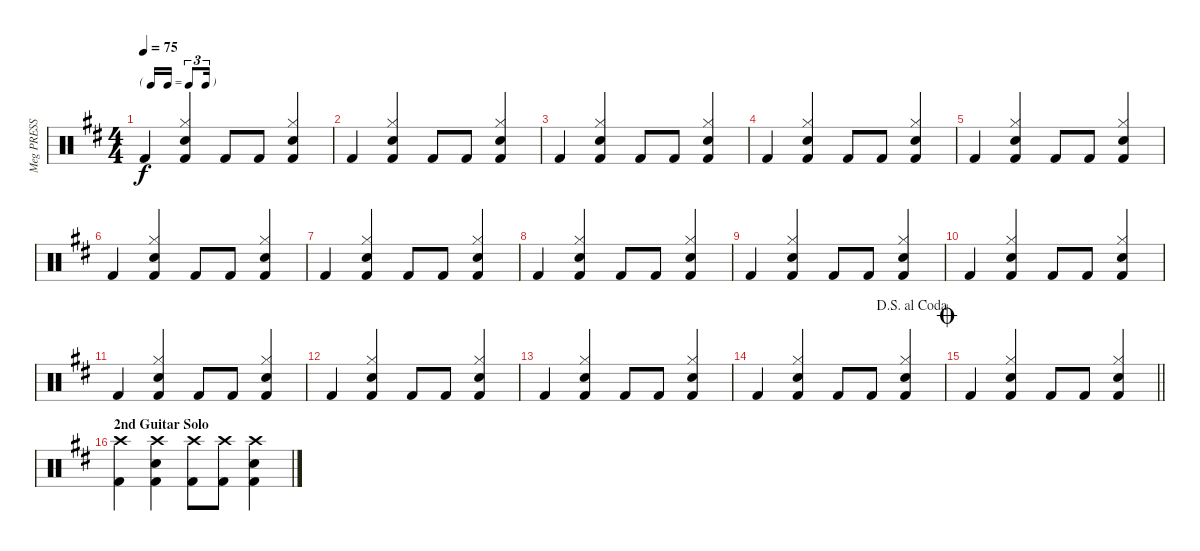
\track ("Meg PRESS F5!!" "Meg PRESS ") {instrument percussion}
\staff {score}
\articulation defaults
\ts (4 4)
\tf triplet16th
\tempo 75
\clef neutral
\ks d "Kick (hit) 2".4{dy f}
("Kick (hit) 2" "Hi-Hat (closed)" "Snare (hit) 2").4 "Kick (hit) 2".8 "Kick (hit) 2".8 ("Kick (hit) 2" "Hi-Hat (closed)" "Snare (hit) 2").4 |
"Kick (hit) 2".4 ("Kick (hit) 2" "Hi-Hat (closed)" "Snare (hit) 2").4 "Kick (hit) 2".8 "Kick (hit) 2".8 ("Kick (hit) 2" "Hi-Hat (closed)" "Snare (hit) 2").4 |
"Kick (hit) 2".4 ("Kick (hit) 2" "Hi-Hat (closed)" "Snare (hit) 2").4 "Kick (hit) 2".8 "Kick (hit) 2".8 ("Kick (hit) 2" "Hi-Hat (closed)" "Snare (hit) 2").4 |
"Kick (hit) 2".4 ("Kick (hit) 2" "Hi-Hat (closed)" "Snare (hit) 2").4 "Kick (hit) 2".8 "Kick (hit) 2".8 ("Kick (hit) 2" "Hi-Hat (closed)" "Snare (hit) 2").4 |
"Kick (hit) 2".4 ("Kick (hit) 2" "Hi-Hat (closed)" "Snare (hit) 2").4 "Kick (hit) 2".8 "Kick (hit) 2".8 ("Kick (hit) 2" "Hi-Hat (closed)" "Snare (hit) 2").4 |
"Kick (hit) 2".4 ("Kick (hit) 2" "Hi-Hat (closed)" "Snare (hit) 2").4 "Kick (hit) 2".8 "Kick (hit) 2".8 ("Kick (hit) 2" "Hi-Hat (closed)" "Snare (hit) 2").4 |
"Kick (hit) 2".4 ("Kick (hit) 2" "Hi-Hat (closed)" "Snare (hit) 2").4 "Kick (hit) 2".8 "Kick (hit) 2".8 ("Kick (hit) 2" "Hi-Hat (closed)" "Snare (hit) 2").4 |
"Kick (hit) 2".4 ("Kick (hit) 2" "Hi-Hat (closed)" "Snare (hit) 2").4 "Kick (hit) 2".8 "Kick (hit) 2".8 ("Kick (hit) 2" "Hi-Hat (closed)" "Snare (hit) 2").4 |
"Kick (hit) 2".4 ("Kick (hit) 2" "Hi-Hat (closed)" "Snare (hit) 2").4 "Kick (hit) 2".8 "Kick (hit) 2".8 ("Kick (hit) 2" "Hi-Hat (closed)" "Snare (hit) 2").4 |
"Kick (hit) 2".4 ("Kick (hit) 2" "Hi-Hat (closed)" "Snare (hit) 2").4 "Kick (hit) 2".8 "Kick (hit) 2".8 ("Kick (hit) 2" "Hi-Hat (closed)" "Snare (hit) 2").4 |
"Kick (hit) 2".4 ("Kick (hit) 2" "Hi-Hat (closed)" "Snare (hit) 2").4 "Kick (hit) 2".8 "Kick (hit) 2".8 ("Kick (hit) 2" "Hi-Hat (closed)" "Snare (hit) 2").4 |
"Kick (hit) 2".4 ("Kick (hit) 2" "Hi-Hat (closed)" "Snare (hit) 2").4 "Kick (hit) 2".8 "Kick (hit) 2".8 ("Kick (hit) 2" "Hi-Hat (closed)" "Snare (hit) 2").4 |
"Kick (hit) 2".4 ("Kick (hit) 2" "Hi-Hat (closed)" "Snare (hit) 2").4 "Kick (hit) 2".8 "Kick (hit) 2".8 ("Kick (hit) 2" "Hi-Hat (closed)" "Snare (hit) 2").4 |
\jump dalsegnoalcoda "Kick (hit) 2".4
("Kick (hit) 2" "Hi-Hat (closed)" "Snare (hit) 2").4 "Kick (hit) 2".8 "Kick (hit) 2".8 ("Kick (hit) 2" "Hi-Hat (closed)" "Snare (hit) 2").4 |
\jump coda
\barLineRight lightlight "Kick (hit) 2".4
("Kick (hit) 2" "Hi-Hat (closed)" "Snare (hit) 2").4 "Kick (hit) 2".8 "Kick (hit) 2".8 ("Kick (hit) 2" "Hi-Hat (closed)" "Snare (hit) 2").4 |
\section ("" "2nd Guitar Solo")
("Kick (hit) 2" "Crash high (hit)").4 ("Kick (hit) 2" "Crash high (hit)" "Snare (hit) 2").4 ("Kick (hit) 2" "Crash high (hit)").8 ("Kick (hit) 2" "Crash high (hit)").8 ("Kick (hit) 2" "Crash high (hit)" "Snare (hit) 2").4
